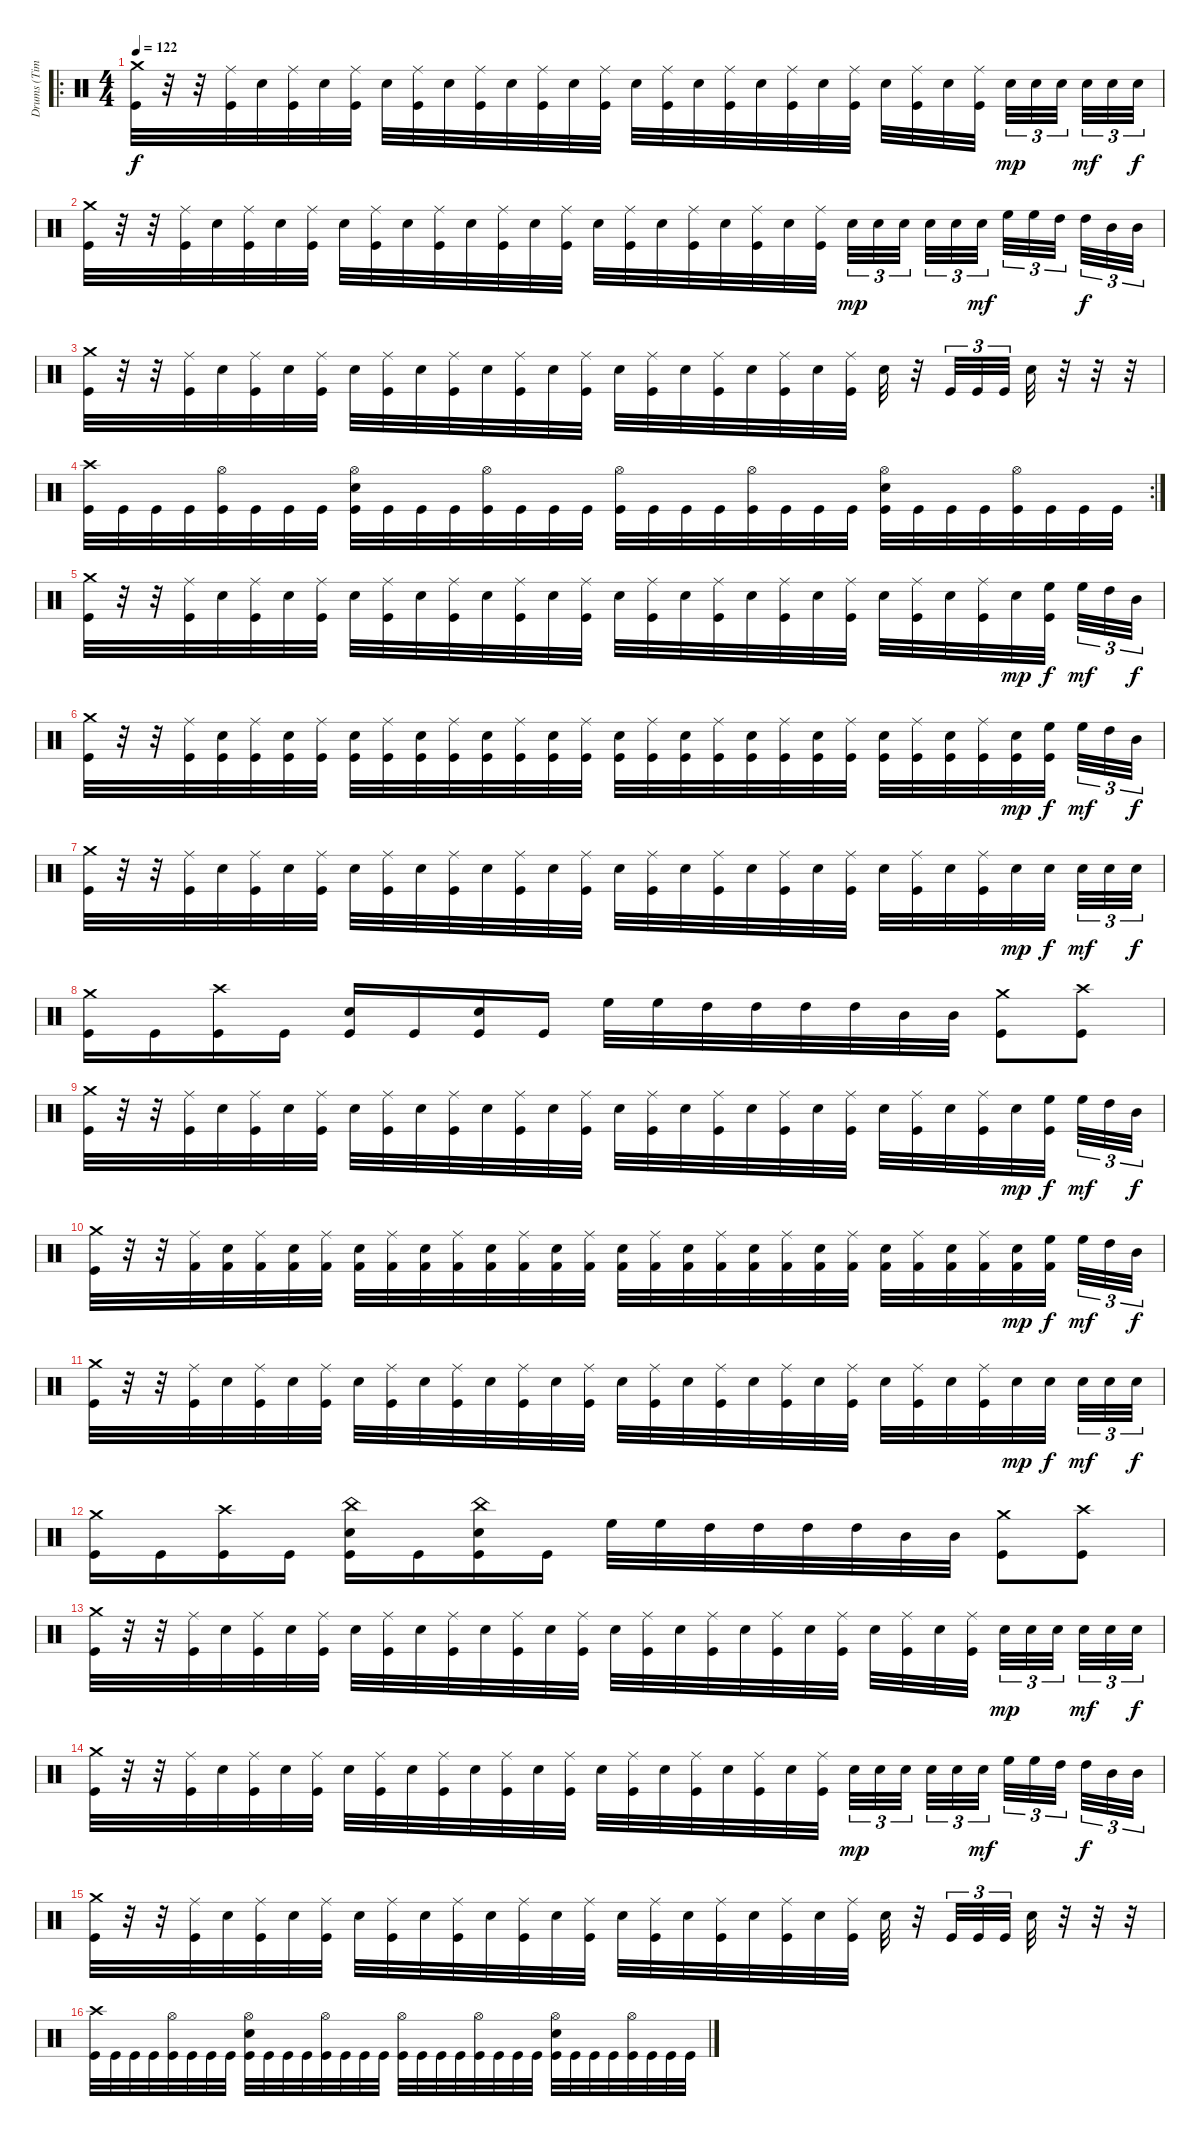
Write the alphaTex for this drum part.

\track ("Drums (Tim Yeung)" "Drums (Tim") {instrument percussion}
\staff {score}
\articulation defaults
\ro
\ts (4 4)
\tempo 122
\clef neutral
\ks c
("Crash medium (hit)" "Kick (hit)").32{dy f} r.32 r.32 ("Ride (middle)" "Kick (hit)").32 "Electric Snare (hit)".32 ("Ride (middle)" "Kick (hit)").32 "Electric Snare (hit)".32 ("Ride (middle)" "Kick (hit)").32 "Electric Snare (hit)".32 ("Ride (middle)" "Kick (hit)").32 "Electric Snare (hit)".32 ("Ride (middle)" "Kick (hit)").32 "Electric Snare (hit)".32 ("Ride (middle)" "Kick (hit)").32 "Electric Snare (hit)".32 ("Ride (middle)" "Kick (hit)").32 "Electric Snare (hit)".32 ("Ride (middle)" "Kick (hit)").32 "Electric Snare (hit)".32 ("Ride (middle)" "Kick (hit)").32 "Electric Snare (hit)".32 ("Ride (middle)" "Kick (hit)").32 "Electric Snare (hit)".32 ("Ride (middle)" "Kick (hit)").32 "Electric Snare (hit)".32 ("Ride (middle)" "Kick (hit)").32 "Electric Snare (hit)".32 ("Ride (middle)" "Kick (hit)").32 "Electric Snare (hit)".32{tu (3 2) dy mp} "Electric Snare (hit)".32{tu (3 2)} "Electric Snare (hit)".32{tu (3 2)} "Electric Snare (hit)".32{tu (3 2) dy mf} "Electric Snare (hit)".32{tu (3 2)} "Electric Snare (hit)".32{tu (3 2) dy f} |
("Crash medium (hit)" "Kick (hit)").32 r.32 r.32 ("Ride (middle)" "Kick (hit)").32 "Electric Snare (hit)".32 ("Ride (middle)" "Kick (hit)").32 "Electric Snare (hit)".32 ("Ride (middle)" "Kick (hit)").32 "Electric Snare (hit)".32 ("Ride (middle)" "Kick (hit)").32 "Electric Snare (hit)".32 ("Ride (middle)" "Kick (hit)").32 "Electric Snare (hit)".32 ("Ride (middle)" "Kick (hit)").32 "Electric Snare (hit)".32 ("Ride (middle)" "Kick (hit)").32 "Electric Snare (hit)".32 ("Ride (middle)" "Kick (hit)").32 "Electric Snare (hit)".32 ("Ride (middle)" "Kick (hit)").32 "Electric Snare (hit)".32 ("Ride (middle)" "Kick (hit)").32 "Electric Snare (hit)".32 ("Ride (middle)" "Kick (hit)").32 "Electric Snare (hit)".32{tu (3 2) dy mp} "Electric Snare (hit)".32{tu (3 2)} "Electric Snare (hit)".32{tu (3 2)} "Electric Snare (hit)".32{tu (3 2)} "Electric Snare (hit)".32{tu (3 2)} "Electric Snare (hit)".32{tu (3 2) dy mf} "High Floor Tom (hit)".32{tu (3 2)} "High Floor Tom (hit)".32{tu (3 2)} "High Tom (hit)".32{tu (3 2)} "High Tom (hit)".32{tu (3 2) dy f} "Mid Tom (hit)".32{tu (3 2)} "Mid Tom (hit)".32{tu (3 2)} |
("Crash medium (hit)" "Kick (hit)").32 r.32 r.32 ("Ride (middle)" "Kick (hit)").32 "Electric Snare (hit)".32 ("Ride (middle)" "Kick (hit)").32 "Electric Snare (hit)".32 ("Ride (middle)" "Kick (hit)").32 "Electric Snare (hit)".32 ("Ride (middle)" "Kick (hit)").32 "Electric Snare (hit)".32 ("Ride (middle)" "Kick (hit)").32 "Electric Snare (hit)".32 ("Ride (middle)" "Kick (hit)").32 "Electric Snare (hit)".32 ("Ride (middle)" "Kick (hit)").32 "Electric Snare (hit)".32 ("Ride (middle)" "Kick (hit)").32 "Electric Snare (hit)".32 ("Ride (middle)" "Kick (hit)").32 "Electric Snare (hit)".32 ("Ride (middle)" "Kick (hit)").32 "Electric Snare (hit)".32 ("Ride (middle)" "Kick (hit)").32 "Electric Snare (hit)".32 r.32 "Kick (hit)".32{tu (3 2)} "Kick (hit)".32{tu (3 2)} "Kick (hit)".32{tu (3 2)} "Electric Snare (hit)".32 r.32 r.32 r.32 |
\rc 2
("Crash high (hit)" "Kick (hit)").32 "Kick (hit)".32 "Kick (hit)".32 "Kick (hit)".32 ("Hi-Hat (open)" "Kick (hit)").32 "Kick (hit)".32 "Kick (hit)".32 "Kick (hit)".32 ("Hi-Hat (open)" "Electric Snare (hit)" "Kick (hit)").32 "Kick (hit)".32 "Kick (hit)".32 "Kick (hit)".32 ("Hi-Hat (open)" "Kick (hit)").32 "Kick (hit)".32 "Kick (hit)".32 "Kick (hit)".32 ("Hi-Hat (open)" "Kick (hit)").32 "Kick (hit)".32 "Kick (hit)".32 "Kick (hit)".32 ("Hi-Hat (open)" "Kick (hit)").32 "Kick (hit)".32 "Kick (hit)".32 "Kick (hit)".32 ("Hi-Hat (open)" "Electric Snare (hit)" "Kick (hit)").32 "Kick (hit)".32 "Kick (hit)".32 "Kick (hit)".32 ("Hi-Hat (open)" "Kick (hit)").32 "Kick (hit)".32 "Kick (hit)".32 "Kick (hit)".32 |
("Crash medium (hit)" "Kick (hit)").32 r.32 r.32 ("Ride (middle)" "Kick (hit)").32 "Electric Snare (hit)".32 ("Ride (middle)" "Kick (hit)").32 "Electric Snare (hit)".32 ("Ride (middle)" "Kick (hit)").32 "Electric Snare (hit)".32 ("Ride (middle)" "Kick (hit)").32 "Electric Snare (hit)".32 ("Ride (middle)" "Kick (hit)").32 "Electric Snare (hit)".32 ("Ride (middle)" "Kick (hit)").32 "Electric Snare (hit)".32 ("Ride (middle)" "Kick (hit)").32 "Electric Snare (hit)".32 ("Ride (middle)" "Kick (hit)").32 "Electric Snare (hit)".32 ("Ride (middle)" "Kick (hit)").32 "Electric Snare (hit)".32 ("Ride (middle)" "Kick (hit)").32 "Electric Snare (hit)".32 ("Ride (middle)" "Kick (hit)").32 "Electric Snare (hit)".32 ("Ride (middle)" "Kick (hit)").32 "Electric Snare (hit)".32 ("Ride (middle)" "Kick (hit)").32 "Electric Snare (hit)".32{dy mp} ("High Floor Tom (hit)" "Kick (hit)").32{dy f} "High Floor Tom (hit)".32{tu (3 2) dy mf} "High Tom (hit)".32{tu (3 2)} "Mid Tom (hit)".32{tu (3 2) dy f} |
("Crash medium (hit)" "Kick (hit)").32 r.32 r.32 ("Ride (middle)" "Kick (hit)").32 ("Electric Snare (hit)" "Kick (hit)").32 ("Ride (middle)" "Kick (hit)").32 ("Electric Snare (hit)" "Kick (hit)").32 ("Ride (middle)" "Kick (hit)").32 ("Electric Snare (hit)" "Kick (hit)").32 ("Ride (middle)" "Kick (hit)").32 ("Electric Snare (hit)" "Kick (hit)").32 ("Ride (middle)" "Kick (hit)").32 ("Electric Snare (hit)" "Kick (hit)").32 ("Ride (middle)" "Kick (hit)").32 ("Electric Snare (hit)" "Kick (hit)").32 ("Ride (middle)" "Kick (hit)").32 ("Electric Snare (hit)" "Kick (hit)").32 ("Ride (middle)" "Kick (hit)").32 ("Electric Snare (hit)" "Kick (hit)").32 ("Ride (middle)" "Kick (hit)").32 ("Electric Snare (hit)" "Kick (hit)").32 ("Ride (middle)" "Kick (hit)").32 ("Electric Snare (hit)" "Kick (hit)").32 ("Ride (middle)" "Kick (hit)").32 ("Electric Snare (hit)" "Kick (hit)").32 ("Ride (middle)" "Kick (hit)").32 ("Electric Snare (hit)" "Kick (hit)").32 ("Ride (middle)" "Kick (hit)").32 ("Electric Snare (hit)" "Kick (hit)").32{dy mp} ("High Floor Tom (hit)" "Kick (hit)").32{dy f} "High Floor Tom (hit)".32{tu (3 2) dy mf} "High Tom (hit)".32{tu (3 2)} "Mid Tom (hit)".32{tu (3 2) dy f} |
("Crash medium (hit)" "Kick (hit)").32 r.32 r.32 ("Ride (middle)" "Kick (hit)").32 "Electric Snare (hit)".32 ("Ride (middle)" "Kick (hit)").32 "Electric Snare (hit)".32 ("Ride (middle)" "Kick (hit)").32 "Electric Snare (hit)".32 ("Ride (middle)" "Kick (hit)").32 "Electric Snare (hit)".32 ("Ride (middle)" "Kick (hit)").32 "Electric Snare (hit)".32 ("Ride (middle)" "Kick (hit)").32 "Electric Snare (hit)".32 ("Ride (middle)" "Kick (hit)").32 "Electric Snare (hit)".32 ("Ride (middle)" "Kick (hit)").32 "Electric Snare (hit)".32 ("Ride (middle)" "Kick (hit)").32 "Electric Snare (hit)".32 ("Ride (middle)" "Kick (hit)").32 "Electric Snare (hit)".32 ("Ride (middle)" "Kick (hit)").32 "Electric Snare (hit)".32 ("Ride (middle)" "Kick (hit)").32 "Electric Snare (hit)".32 ("Ride (middle)" "Kick (hit)").32 "Electric Snare (hit)".32{dy mp} "Electric Snare (hit)".32{dy f} "Electric Snare (hit)".32{tu (3 2) dy mf} "Electric Snare (hit)".32{tu (3 2)} "Electric Snare (hit)".32{tu (3 2) dy f} |
("Crash medium (hit)" "Kick (hit)").16 "Kick (hit)".16 ("Crash high (hit)" "Kick (hit)").16 "Kick (hit)".16 ("Electric Snare (hit)" "Kick (hit)").16 "Kick (hit)".16 ("Electric Snare (hit)" "Kick (hit)").16 "Kick (hit)".16 "High Floor Tom (hit)".32 "High Floor Tom (hit)".32 "High Tom (hit)".32 "High Tom (hit)".32 "High Tom (hit)".32 "High Tom (hit)".32 "Mid Tom (hit)".32 "Mid Tom (hit)".32 ("Crash medium (hit)" "Kick (hit)").8 ("Crash high (hit)" "Kick (hit)").8 |
("Crash medium (hit)" "Kick (hit)").32 r.32 r.32 ("Ride (middle)" "Kick (hit)").32 "Electric Snare (hit)".32 ("Ride (middle)" "Kick (hit)").32 "Electric Snare (hit)".32 ("Ride (middle)" "Kick (hit)").32 "Electric Snare (hit)".32 ("Ride (middle)" "Kick (hit)").32 "Electric Snare (hit)".32 ("Ride (middle)" "Kick (hit)").32 "Electric Snare (hit)".32 ("Ride (middle)" "Kick (hit)").32 "Electric Snare (hit)".32 ("Ride (middle)" "Kick (hit)").32 "Electric Snare (hit)".32 ("Ride (middle)" "Kick (hit)").32 "Electric Snare (hit)".32 ("Ride (middle)" "Kick (hit)").32 "Electric Snare (hit)".32 ("Ride (middle)" "Kick (hit)").32 "Electric Snare (hit)".32 ("Ride (middle)" "Kick (hit)").32 "Electric Snare (hit)".32 ("Ride (middle)" "Kick (hit)").32 "Electric Snare (hit)".32 ("Ride (middle)" "Kick (hit)").32 "Electric Snare (hit)".32{dy mp} ("High Floor Tom (hit)" "Kick (hit)").32{dy f} "High Floor Tom (hit)".32{tu (3 2) dy mf} "High Tom (hit)".32{tu (3 2)} "Mid Tom (hit)".32{tu (3 2) dy f} |
("Crash medium (hit)" "Kick (hit)").32 r.32 r.32 ("Ride (middle)" "Kick (hit) 2").32 ("Electric Snare (hit)" "Kick (hit) 2").32 ("Ride (middle)" "Kick (hit) 2").32 ("Electric Snare (hit)" "Kick (hit) 2").32 ("Ride (middle)" "Kick (hit) 2").32 ("Electric Snare (hit)" "Kick (hit) 2").32 ("Ride (middle)" "Kick (hit) 2").32 ("Electric Snare (hit)" "Kick (hit) 2").32 ("Ride (middle)" "Kick (hit) 2").32 ("Electric Snare (hit)" "Kick (hit) 2").32 ("Ride (middle)" "Kick (hit) 2").32 ("Electric Snare (hit)" "Kick (hit) 2").32 ("Ride (middle)" "Kick (hit) 2").32 ("Electric Snare (hit)" "Kick (hit) 2").32 ("Ride (middle)" "Kick (hit) 2").32 ("Electric Snare (hit)" "Kick (hit) 2").32 ("Ride (middle)" "Kick (hit) 2").32 ("Electric Snare (hit)" "Kick (hit) 2").32 ("Ride (middle)" "Kick (hit) 2").32 ("Electric Snare (hit)" "Kick (hit) 2").32 ("Ride (middle)" "Kick (hit) 2").32 ("Electric Snare (hit)" "Kick (hit) 2").32 ("Ride (middle)" "Kick (hit) 2").32 ("Electric Snare (hit)" "Kick (hit) 2").32 ("Ride (middle)" "Kick (hit) 2").32 ("Electric Snare (hit)" "Kick (hit) 2").32{dy mp} ("High Floor Tom (hit)" "Kick (hit) 2").32{dy f} "High Floor Tom (hit)".32{tu (3 2) dy mf} "High Tom (hit)".32{tu (3 2)} "Mid Tom (hit)".32{tu (3 2) dy f} |
("Crash medium (hit)" "Kick (hit)").32 r.32 r.32 ("Ride (middle)" "Kick (hit)").32 "Electric Snare (hit)".32 ("Ride (middle)" "Kick (hit)").32 "Electric Snare (hit)".32 ("Ride (middle)" "Kick (hit)").32 "Electric Snare (hit)".32 ("Ride (middle)" "Kick (hit)").32 "Electric Snare (hit)".32 ("Ride (middle)" "Kick (hit)").32 "Electric Snare (hit)".32 ("Ride (middle)" "Kick (hit)").32 "Electric Snare (hit)".32 ("Ride (middle)" "Kick (hit)").32 "Electric Snare (hit)".32 ("Ride (middle)" "Kick (hit)").32 "Electric Snare (hit)".32 ("Ride (middle)" "Kick (hit)").32 "Electric Snare (hit)".32 ("Ride (middle)" "Kick (hit)").32 "Electric Snare (hit)".32 ("Ride (middle)" "Kick (hit)").32 "Electric Snare (hit)".32 ("Ride (middle)" "Kick (hit)").32 "Electric Snare (hit)".32 ("Ride (middle)" "Kick (hit)").32 "Electric Snare (hit)".32{dy mp} "Electric Snare (hit)".32{dy f} "Electric Snare (hit)".32{tu (3 2) dy mf} "Electric Snare (hit)".32{tu (3 2)} "Electric Snare (hit)".32{tu (3 2) dy f} |
("Crash medium (hit)" "Kick (hit)").16 "Kick (hit)".16 ("Crash high (hit)" "Kick (hit)").16 "Kick (hit)".16 ("China (hit)" "Electric Snare (hit)" "Kick (hit)").16 "Kick (hit)".16 ("China (hit)" "Electric Snare (hit)" "Kick (hit)").16 "Kick (hit)".16 "High Floor Tom (hit)".32 "High Floor Tom (hit)".32 "High Tom (hit)".32 "High Tom (hit)".32 "High Tom (hit)".32 "High Tom (hit)".32 "Mid Tom (hit)".32 "Mid Tom (hit)".32 ("Crash medium (hit)" "Kick (hit)").8 ("Crash high (hit)" "Kick (hit)").8 |
("Crash medium (hit)" "Kick (hit)").32 r.32 r.32 ("Ride (middle)" "Kick (hit)").32 "Electric Snare (hit)".32 ("Ride (middle)" "Kick (hit)").32 "Electric Snare (hit)".32 ("Ride (middle)" "Kick (hit)").32 "Electric Snare (hit)".32 ("Ride (middle)" "Kick (hit)").32 "Electric Snare (hit)".32 ("Ride (middle)" "Kick (hit)").32 "Electric Snare (hit)".32 ("Ride (middle)" "Kick (hit)").32 "Electric Snare (hit)".32 ("Ride (middle)" "Kick (hit)").32 "Electric Snare (hit)".32 ("Ride (middle)" "Kick (hit)").32 "Electric Snare (hit)".32 ("Ride (middle)" "Kick (hit)").32 "Electric Snare (hit)".32 ("Ride (middle)" "Kick (hit)").32 "Electric Snare (hit)".32 ("Ride (middle)" "Kick (hit)").32 "Electric Snare (hit)".32 ("Ride (middle)" "Kick (hit)").32 "Electric Snare (hit)".32 ("Ride (middle)" "Kick (hit)").32 "Electric Snare (hit)".32{tu (3 2) dy mp} "Electric Snare (hit)".32{tu (3 2)} "Electric Snare (hit)".32{tu (3 2)} "Electric Snare (hit)".32{tu (3 2) dy mf} "Electric Snare (hit)".32{tu (3 2)} "Electric Snare (hit)".32{tu (3 2) dy f} |
("Crash medium (hit)" "Kick (hit)").32 r.32 r.32 ("Ride (middle)" "Kick (hit)").32 "Electric Snare (hit)".32 ("Ride (middle)" "Kick (hit)").32 "Electric Snare (hit)".32 ("Ride (middle)" "Kick (hit)").32 "Electric Snare (hit)".32 ("Ride (middle)" "Kick (hit)").32 "Electric Snare (hit)".32 ("Ride (middle)" "Kick (hit)").32 "Electric Snare (hit)".32 ("Ride (middle)" "Kick (hit)").32 "Electric Snare (hit)".32 ("Ride (middle)" "Kick (hit)").32 "Electric Snare (hit)".32 ("Ride (middle)" "Kick (hit)").32 "Electric Snare (hit)".32 ("Ride (middle)" "Kick (hit)").32 "Electric Snare (hit)".32 ("Ride (middle)" "Kick (hit)").32 "Electric Snare (hit)".32 ("Ride (middle)" "Kick (hit)").32 "Electric Snare (hit)".32{tu (3 2) dy mp} "Electric Snare (hit)".32{tu (3 2)} "Electric Snare (hit)".32{tu (3 2)} "Electric Snare (hit)".32{tu (3 2)} "Electric Snare (hit)".32{tu (3 2)} "Electric Snare (hit)".32{tu (3 2) dy mf} "High Floor Tom (hit)".32{tu (3 2)} "High Floor Tom (hit)".32{tu (3 2)} "High Tom (hit)".32{tu (3 2)} "High Tom (hit)".32{tu (3 2) dy f} "Mid Tom (hit)".32{tu (3 2)} "Mid Tom (hit)".32{tu (3 2)} |
("Crash medium (hit)" "Kick (hit)").32 r.32 r.32 ("Ride (middle)" "Kick (hit)").32 "Electric Snare (hit)".32 ("Ride (middle)" "Kick (hit)").32 "Electric Snare (hit)".32 ("Ride (middle)" "Kick (hit)").32 "Electric Snare (hit)".32 ("Ride (middle)" "Kick (hit)").32 "Electric Snare (hit)".32 ("Ride (middle)" "Kick (hit)").32 "Electric Snare (hit)".32 ("Ride (middle)" "Kick (hit)").32 "Electric Snare (hit)".32 ("Ride (middle)" "Kick (hit)").32 "Electric Snare (hit)".32 ("Ride (middle)" "Kick (hit)").32 "Electric Snare (hit)".32 ("Ride (middle)" "Kick (hit)").32 "Electric Snare (hit)".32 ("Ride (middle)" "Kick (hit)").32 "Electric Snare (hit)".32 ("Ride (middle)" "Kick (hit)").32 "Electric Snare (hit)".32 r.32 "Kick (hit)".32{tu (3 2)} "Kick (hit)".32{tu (3 2)} "Kick (hit)".32{tu (3 2)} "Electric Snare (hit)".32 r.32 r.32 r.32 |
("Crash high (hit)" "Kick (hit)").32 "Kick (hit)".32 "Kick (hit)".32 "Kick (hit)".32 ("Hi-Hat (open)" "Kick (hit)").32 "Kick (hit)".32 "Kick (hit)".32 "Kick (hit)".32 ("Hi-Hat (open)" "Electric Snare (hit)" "Kick (hit)").32 "Kick (hit)".32 "Kick (hit)".32 "Kick (hit)".32 ("Hi-Hat (open)" "Kick (hit)").32 "Kick (hit)".32 "Kick (hit)".32 "Kick (hit)".32 ("Hi-Hat (open)" "Kick (hit)").32 "Kick (hit)".32 "Kick (hit)".32 "Kick (hit)".32 ("Hi-Hat (open)" "Kick (hit)").32 "Kick (hit)".32 "Kick (hit)".32 "Kick (hit)".32 ("Hi-Hat (open)" "Electric Snare (hit)" "Kick (hit)").32 "Kick (hit)".32 "Kick (hit)".32 "Kick (hit)".32 ("Hi-Hat (open)" "Kick (hit)").32 "Kick (hit)".32 "Kick (hit)".32 "Kick (hit)".32
